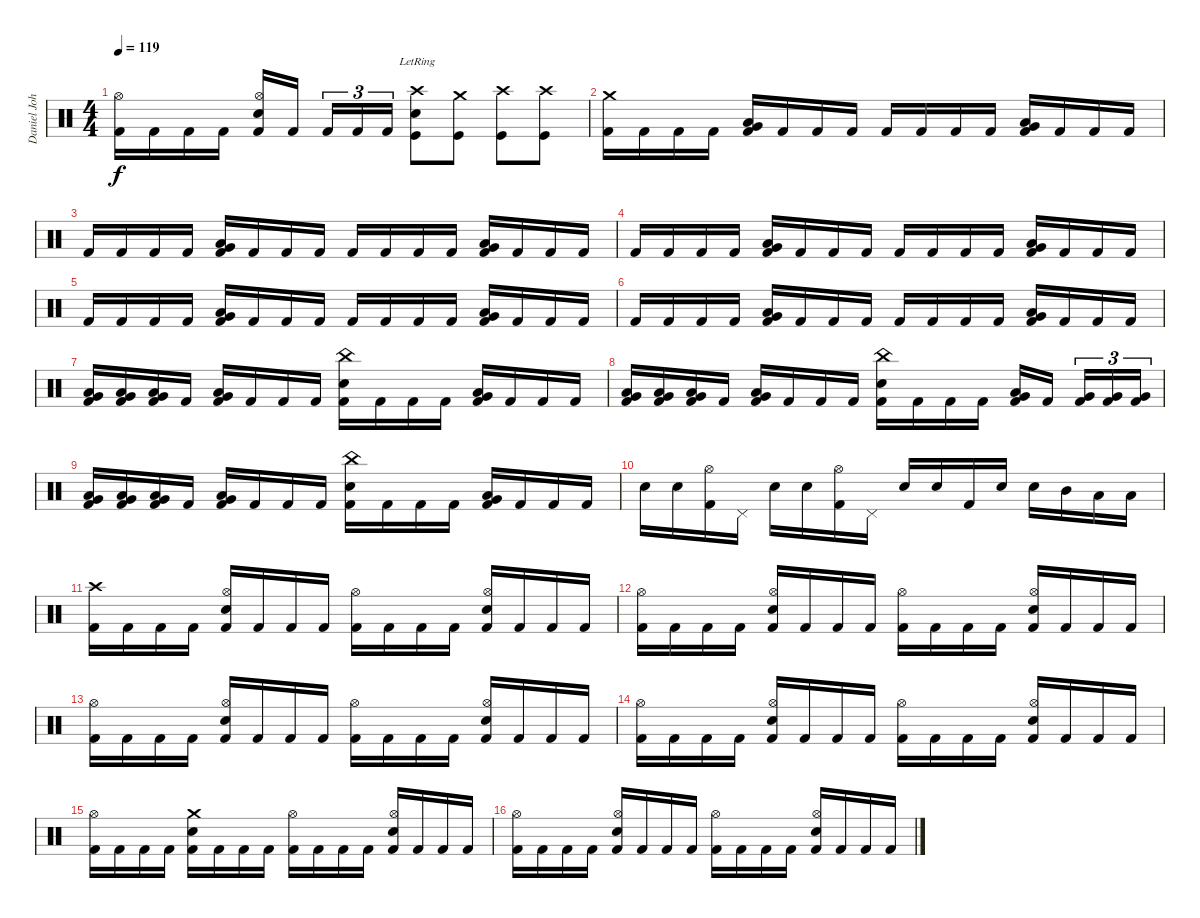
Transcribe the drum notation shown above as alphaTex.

\track ("Daniel John Erlandson (Drums)" "Daniel Joh") {instrument percussion}
\staff {score}
\articulation defaults
\ts (4 4)
\tempo 119
\clef neutral
\ks c
("Kick (hit) 2" "Hi-Hat (open)").16{dy f} "Kick (hit) 2".16 "Kick (hit) 2".16 "Kick (hit) 2".16 ("Kick (hit) 2" "Snare (hit) 2" "Hi-Hat (open)").16 "Kick (hit) 2".16 "Kick (hit) 2".16{tu (3 2)} "Kick (hit) 2".16{tu (3 2)} "Kick (hit) 2".16{tu (3 2)} ("Kick (hit)" "Snare (hit) 2" "Crash high (hit)"{lr}).8 ("Kick (hit)" "Crash medium (hit)").8 ("Kick (hit)" "Crash high (hit)").8 ("Kick (hit)" "Crash high (hit)").8 |
("Crash medium (hit)" "Kick (hit) 2").16 "Kick (hit) 2".16 "Kick (hit) 2".16 "Kick (hit) 2".16 ("Very Low Tom (hit)" "Low Floor Tom (hit)" "Kick (hit) 2").16 "Kick (hit) 2".16 "Kick (hit) 2".16 "Kick (hit) 2".16 "Kick (hit) 2".16 "Kick (hit) 2".16 "Kick (hit) 2".16 "Kick (hit) 2".16 ("Very Low Tom (hit)" "Low Floor Tom (hit)" "Kick (hit) 2").16 "Kick (hit) 2".16 "Kick (hit) 2".16 "Kick (hit) 2".16 |
"Kick (hit) 2".16 "Kick (hit) 2".16 "Kick (hit) 2".16 "Kick (hit) 2".16 ("Very Low Tom (hit)" "Low Floor Tom (hit)" "Kick (hit) 2").16 "Kick (hit) 2".16 "Kick (hit) 2".16 "Kick (hit) 2".16 "Kick (hit) 2".16 "Kick (hit) 2".16 "Kick (hit) 2".16 "Kick (hit) 2".16 ("Very Low Tom (hit)" "Low Floor Tom (hit)" "Kick (hit) 2").16 "Kick (hit) 2".16 "Kick (hit) 2".16 "Kick (hit) 2".16 |
"Kick (hit) 2".16 "Kick (hit) 2".16 "Kick (hit) 2".16 "Kick (hit) 2".16 ("Very Low Tom (hit)" "Low Floor Tom (hit)" "Kick (hit) 2").16 "Kick (hit) 2".16 "Kick (hit) 2".16 "Kick (hit) 2".16 "Kick (hit) 2".16 "Kick (hit) 2".16 "Kick (hit) 2".16 "Kick (hit) 2".16 ("Very Low Tom (hit)" "Low Floor Tom (hit)" "Kick (hit) 2").16 "Kick (hit) 2".16 "Kick (hit) 2".16 "Kick (hit) 2".16 |
"Kick (hit) 2".16 "Kick (hit) 2".16 "Kick (hit) 2".16 "Kick (hit) 2".16 ("Very Low Tom (hit)" "Low Floor Tom (hit)" "Kick (hit) 2").16 "Kick (hit) 2".16 "Kick (hit) 2".16 "Kick (hit) 2".16 "Kick (hit) 2".16 "Kick (hit) 2".16 "Kick (hit) 2".16 "Kick (hit) 2".16 ("Very Low Tom (hit)" "Low Floor Tom (hit)" "Kick (hit) 2").16 "Kick (hit) 2".16 "Kick (hit) 2".16 "Kick (hit) 2".16 |
"Kick (hit) 2".16 "Kick (hit) 2".16 "Kick (hit) 2".16 "Kick (hit) 2".16 ("Very Low Tom (hit)" "Low Floor Tom (hit)" "Kick (hit) 2").16 "Kick (hit) 2".16 "Kick (hit) 2".16 "Kick (hit) 2".16 "Kick (hit) 2".16 "Kick (hit) 2".16 "Kick (hit) 2".16 "Kick (hit) 2".16 ("Very Low Tom (hit)" "Low Floor Tom (hit)" "Kick (hit) 2").16 "Kick (hit) 2".16 "Kick (hit) 2".16 "Kick (hit) 2".16 |
("Very Low Tom (hit)" "Low Floor Tom (hit)" "Kick (hit) 2").16 ("Very Low Tom (hit)" "Low Floor Tom (hit)" "Kick (hit) 2").16 ("Very Low Tom (hit)" "Low Floor Tom (hit)" "Kick (hit) 2").16 "Kick (hit) 2".16 ("Very Low Tom (hit)" "Low Floor Tom (hit)" "Kick (hit) 2").16 "Kick (hit) 2".16 "Kick (hit) 2".16 "Kick (hit) 2".16 ("Snare (hit) 2" "China (hit)" "Kick (hit) 2").16 "Kick (hit) 2".16 "Kick (hit) 2".16 "Kick (hit) 2".16 ("Very Low Tom (hit)" "Low Floor Tom (hit)" "Kick (hit) 2").16 "Kick (hit) 2".16 "Kick (hit) 2".16 "Kick (hit) 2".16 |
("Very Low Tom (hit)" "Low Floor Tom (hit)" "Kick (hit) 2").16 ("Very Low Tom (hit)" "Low Floor Tom (hit)" "Kick (hit) 2").16 ("Very Low Tom (hit)" "Low Floor Tom (hit)" "Kick (hit) 2").16 "Kick (hit) 2".16 ("Very Low Tom (hit)" "Low Floor Tom (hit)" "Kick (hit) 2").16 "Kick (hit) 2".16 "Kick (hit) 2".16 "Kick (hit) 2".16 ("Snare (hit) 2" "China (hit)" "Kick (hit) 2").16 "Kick (hit) 2".16 "Kick (hit) 2".16 "Kick (hit) 2".16 ("Very Low Tom (hit)" "Low Floor Tom (hit)" "Kick (hit) 2").16 "Kick (hit) 2".16 ("Very Low Tom (hit)" "Kick (hit) 2").16{tu (3 2)} ("Very Low Tom (hit)" "Kick (hit) 2").16{tu (3 2)} ("Very Low Tom (hit)" "Kick (hit) 2").16{tu (3 2)} |
("Very Low Tom (hit)" "Low Floor Tom (hit)" "Kick (hit) 2").16 ("Very Low Tom (hit)" "Low Floor Tom (hit)" "Kick (hit) 2").16 ("Very Low Tom (hit)" "Low Floor Tom (hit)" "Kick (hit) 2").16 "Kick (hit) 2".16 ("Very Low Tom (hit)" "Low Floor Tom (hit)" "Kick (hit) 2").16 "Kick (hit) 2".16 "Kick (hit) 2".16 "Kick (hit) 2".16 ("Snare (hit) 2" "China (hit)" "Kick (hit) 2").16 "Kick (hit) 2".16 "Kick (hit) 2".16 "Kick (hit) 2".16 ("Very Low Tom (hit)" "Low Floor Tom (hit)" "Kick (hit) 2").16 "Kick (hit) 2".16 "Kick (hit) 2".16 "Kick (hit) 2".16 |
"Snare (hit) 2".16 "Snare (hit) 2".16 ("Hi-Hat (open)" "Kick (hit) 2").16 "Pedal Hi-Hat (hit)".16 "Snare (hit) 2".16 "Snare (hit) 2".16 ("Hi-Hat (open)" "Kick (hit) 2").16 "Pedal Hi-Hat (hit)".16 "Snare (hit) 2".16 "Snare (hit) 2".16 "Kick (hit) 2".16 "Snare (hit) 2".16 "Snare (hit) 2".16 "Mid Tom (hit)".16 "Low Tom (hit)".16 "Low Tom (hit)".16 |
("Kick (hit) 2" "Crash high (hit)").16 "Kick (hit) 2".16 "Kick (hit) 2".16 "Kick (hit) 2".16 ("Kick (hit) 2" "Snare (hit) 2" "Hi-Hat (open)").16 "Kick (hit) 2".16 "Kick (hit) 2".16 "Kick (hit) 2".16 ("Kick (hit) 2" "Hi-Hat (open)").16 "Kick (hit) 2".16 "Kick (hit) 2".16 "Kick (hit) 2".16 ("Kick (hit) 2" "Snare (hit) 2" "Hi-Hat (open)").16 "Kick (hit) 2".16 "Kick (hit) 2".16 "Kick (hit) 2".16 |
("Kick (hit) 2" "Hi-Hat (open)").16 "Kick (hit) 2".16 "Kick (hit) 2".16 "Kick (hit) 2".16 ("Kick (hit) 2" "Snare (hit) 2" "Hi-Hat (open)").16 "Kick (hit) 2".16 "Kick (hit) 2".16 "Kick (hit) 2".16 ("Kick (hit) 2" "Hi-Hat (open)").16 "Kick (hit) 2".16 "Kick (hit) 2".16 "Kick (hit) 2".16 ("Kick (hit) 2" "Snare (hit) 2" "Hi-Hat (open)").16 "Kick (hit) 2".16 "Kick (hit) 2".16 "Kick (hit) 2".16 |
("Kick (hit) 2" "Hi-Hat (open)").16 "Kick (hit) 2".16 "Kick (hit) 2".16 "Kick (hit) 2".16 ("Kick (hit) 2" "Snare (hit) 2" "Hi-Hat (open)").16 "Kick (hit) 2".16 "Kick (hit) 2".16 "Kick (hit) 2".16 ("Kick (hit) 2" "Hi-Hat (open)").16 "Kick (hit) 2".16 "Kick (hit) 2".16 "Kick (hit) 2".16 ("Kick (hit) 2" "Snare (hit) 2" "Hi-Hat (open)").16 "Kick (hit) 2".16 "Kick (hit) 2".16 "Kick (hit) 2".16 |
("Kick (hit) 2" "Hi-Hat (open)").16 "Kick (hit) 2".16 "Kick (hit) 2".16 "Kick (hit) 2".16 ("Kick (hit) 2" "Snare (hit) 2" "Hi-Hat (open)").16 "Kick (hit) 2".16 "Kick (hit) 2".16 "Kick (hit) 2".16 ("Kick (hit) 2" "Hi-Hat (open)").16 "Kick (hit) 2".16 "Kick (hit) 2".16 "Kick (hit) 2".16 ("Kick (hit) 2" "Snare (hit) 2" "Hi-Hat (open)").16 "Kick (hit) 2".16 "Kick (hit) 2".16 "Kick (hit) 2".16 |
("Kick (hit) 2" "Hi-Hat (open)").16 "Kick (hit) 2".16 "Kick (hit) 2".16 "Kick (hit) 2".16 ("Kick (hit) 2" "Snare (hit) 2" "Crash medium (hit)").16 "Kick (hit) 2".16 "Kick (hit) 2".16 "Kick (hit) 2".16 ("Kick (hit) 2" "Hi-Hat (open)").16 "Kick (hit) 2".16 "Kick (hit) 2".16 "Kick (hit) 2".16 ("Kick (hit) 2" "Snare (hit) 2" "Hi-Hat (open)").16 "Kick (hit) 2".16 "Kick (hit) 2".16 "Kick (hit) 2".16 |
("Kick (hit) 2" "Hi-Hat (open)").16 "Kick (hit) 2".16 "Kick (hit) 2".16 "Kick (hit) 2".16 ("Kick (hit) 2" "Snare (hit) 2" "Hi-Hat (open)").16 "Kick (hit) 2".16 "Kick (hit) 2".16 "Kick (hit) 2".16 ("Kick (hit) 2" "Hi-Hat (open)").16 "Kick (hit) 2".16 "Kick (hit) 2".16 "Kick (hit) 2".16 ("Kick (hit) 2" "Snare (hit) 2" "Hi-Hat (open)").16 "Kick (hit) 2".16 "Kick (hit) 2".16 "Kick (hit) 2".16
